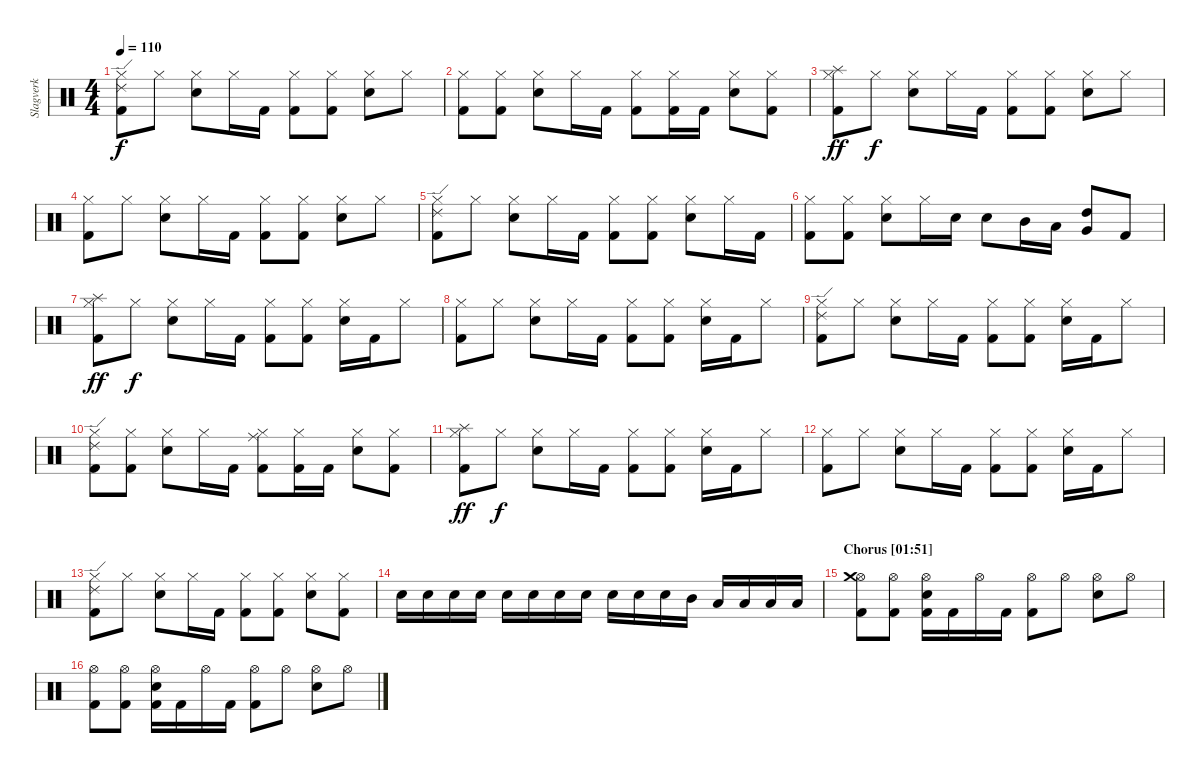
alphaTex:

\track ("Slagverk" "Slagverk") {instrument percussion}
\staff {score}
\articulation defaults
\ts (4 4)
\tempo 110
\clef neutral
\ks c
("Hi-Hat (closed)" "Ride (edge) 2" "Kick (hit) 2").8{dy f} "Hi-Hat (closed)".8 ("Hi-Hat (closed)" "Electric Snare (hit)").8 "Hi-Hat (closed)".16 "Kick (hit) 2".16 ("Hi-Hat (closed)" "Kick (hit) 2").8 ("Hi-Hat (closed)" "Kick (hit) 2").8 ("Hi-Hat (closed)" "Electric Snare (hit)").8 "Hi-Hat (closed)".8 |
("Hi-Hat (closed)" "Kick (hit) 2").8 ("Hi-Hat (closed)" "Kick (hit) 2").8 ("Hi-Hat (closed)" "Electric Snare (hit)").8 "Hi-Hat (closed)".16 "Kick (hit) 2".16 ("Hi-Hat (closed)" "Kick (hit) 2").8 ("Hi-Hat (closed)" "Kick (hit) 2").16 "Kick (hit) 2".16 ("Hi-Hat (closed)" "Electric Snare (hit)").8 ("Hi-Hat (closed)" "Kick (hit) 2").8 |
("Hi-Hat (closed)" "Splash (hit)" "Kick (hit) 2").8{dy ff} "Hi-Hat (closed)".8{dy f} ("Hi-Hat (closed)" "Electric Snare (hit)").8 "Hi-Hat (closed)".16 "Kick (hit) 2".16 ("Hi-Hat (closed)" "Kick (hit) 2").8 ("Hi-Hat (closed)" "Kick (hit) 2").8 ("Hi-Hat (closed)" "Electric Snare (hit)").8 "Hi-Hat (closed)".8 |
("Hi-Hat (closed)" "Kick (hit) 2").8 "Hi-Hat (closed)".8 ("Hi-Hat (closed)" "Electric Snare (hit)").8 "Hi-Hat (closed)".16 "Kick (hit) 2".16 ("Hi-Hat (closed)" "Kick (hit) 2").8 ("Hi-Hat (closed)" "Kick (hit) 2").8 ("Hi-Hat (closed)" "Electric Snare (hit)").8 "Hi-Hat (closed)".8 |
("Hi-Hat (closed)" "Ride (edge) 2" "Kick (hit) 2").8 "Hi-Hat (closed)".8 ("Hi-Hat (closed)" "Electric Snare (hit)").8 "Hi-Hat (closed)".16 "Kick (hit) 2".16 ("Hi-Hat (closed)" "Kick (hit) 2").8 ("Hi-Hat (closed)" "Kick (hit) 2").8 ("Hi-Hat (closed)" "Electric Snare (hit)").8 "Hi-Hat (closed)".16 "Kick (hit) 2".16 |
("Hi-Hat (closed)" "Kick (hit) 2").8 ("Hi-Hat (closed)" "Kick (hit) 2").8 ("Hi-Hat (closed)" "Electric Snare (hit)").8 "Hi-Hat (closed)".16 "Electric Snare (hit)".16 "Electric Snare (hit)".8 "Mid Tom (hit)".16 "Low Tom (hit)".16 ("High Tom (hit)" "Very Low Tom (hit)").8 "Kick (hit) 2".8 |
\section ("" "")
("Hi-Hat (closed)" "Splash (hit)" "Kick (hit) 2").8{dy ff} "Hi-Hat (closed)".8{dy f} ("Hi-Hat (closed)" "Electric Snare (hit)").8 "Hi-Hat (closed)".16 "Kick (hit) 2".16 ("Hi-Hat (closed)" "Kick (hit) 2").8 ("Hi-Hat (closed)" "Kick (hit) 2").8 ("Hi-Hat (closed)" "Electric Snare (hit)").16 "Kick (hit) 2".16 "Hi-Hat (closed)".8 |
("Hi-Hat (closed)" "Kick (hit) 2").8 "Hi-Hat (closed)".8 ("Hi-Hat (closed)" "Electric Snare (hit)").8 "Hi-Hat (closed)".16 "Kick (hit) 2".16 ("Hi-Hat (closed)" "Kick (hit) 2").8 ("Hi-Hat (closed)" "Kick (hit) 2").8 ("Hi-Hat (closed)" "Electric Snare (hit)").16 "Kick (hit) 2".16 "Hi-Hat (closed)".8 |
("Hi-Hat (closed)" "Ride (edge) 2" "Kick (hit) 2").8 "Hi-Hat (closed)".8 ("Hi-Hat (closed)" "Electric Snare (hit)").8 "Hi-Hat (closed)".16 "Kick (hit) 2".16 ("Hi-Hat (closed)" "Kick (hit) 2").8 ("Hi-Hat (closed)" "Kick (hit) 2").8 ("Hi-Hat (closed)" "Electric Snare (hit)").16 "Kick (hit) 2".16 "Hi-Hat (closed)".8 |
("Hi-Hat (closed)" "Ride (edge) 2" "Kick (hit) 2").8 ("Hi-Hat (closed)" "Kick (hit) 2").8 ("Hi-Hat (closed)" "Electric Snare (hit)").8 "Hi-Hat (closed)".16 "Kick (hit) 2".16 ("Hi-Hat (closed)" "Ride (middle)" "Kick (hit) 2").8 ("Hi-Hat (closed)" "Kick (hit) 2").16 "Kick (hit) 2".16 ("Hi-Hat (closed)" "Electric Snare (hit)").8 ("Hi-Hat (closed)" "Kick (hit) 2").8 |
("Hi-Hat (closed)" "Splash (hit)" "Kick (hit) 2").8{dy ff} "Hi-Hat (closed)".8{dy f} ("Hi-Hat (closed)" "Electric Snare (hit)").8 "Hi-Hat (closed)".16 "Kick (hit) 2".16 ("Hi-Hat (closed)" "Kick (hit) 2").8 ("Hi-Hat (closed)" "Kick (hit) 2").8 ("Hi-Hat (closed)" "Electric Snare (hit)").16 "Kick (hit) 2".16 "Hi-Hat (closed)".8 |
("Hi-Hat (closed)" "Kick (hit) 2").8 "Hi-Hat (closed)".8 ("Hi-Hat (closed)" "Electric Snare (hit)").8 "Hi-Hat (closed)".16 "Kick (hit) 2".16 ("Hi-Hat (closed)" "Kick (hit) 2").8 ("Hi-Hat (closed)" "Kick (hit) 2").8 ("Hi-Hat (closed)" "Electric Snare (hit)").16 "Kick (hit) 2".16 "Hi-Hat (closed)".8 |
("Hi-Hat (closed)" "Ride (edge) 2" "Kick (hit) 2").8 "Hi-Hat (closed)".8 ("Hi-Hat (closed)" "Electric Snare (hit)").8 "Hi-Hat (closed)".16 "Kick (hit) 2".16 ("Hi-Hat (closed)" "Kick (hit) 2").8 ("Hi-Hat (closed)" "Kick (hit) 2").8 ("Hi-Hat (closed)" "Electric Snare (hit)").8 ("Hi-Hat (closed)" "Kick (hit) 2").8 |
"Electric Snare (hit)".16 "Electric Snare (hit)".16 "Electric Snare (hit)".16 "Electric Snare (hit)".16 "Electric Snare (hit)".16 "Electric Snare (hit)".16 "Electric Snare (hit)".16 "Electric Snare (hit)".16 "Electric Snare (hit)".16 "Electric Snare (hit)".16 "Electric Snare (hit)".16 "Mid Tom (hit)".16 "Low Tom (hit)".16 "Low Tom (hit)".16 "Low Tom (hit)".16 "Low Tom (hit)".16 |
\section ("" "Chorus [01:51]")
("Hi-Hat (open)" "Crash medium (hit)" "Kick (hit) 2").8 ("Hi-Hat (open)" "Kick (hit) 2").8 ("Hi-Hat (open)" "Electric Snare (hit)" "Kick (hit) 2").16 "Kick (hit) 2".16 "Hi-Hat (open)".16 "Kick (hit) 2".16 ("Hi-Hat (open)" "Kick (hit) 2").8 "Hi-Hat (open)".8 ("Hi-Hat (open)" "Electric Snare (hit)").8 "Hi-Hat (open)".8 |
("Hi-Hat (open)" "Kick (hit) 2").8 ("Hi-Hat (open)" "Kick (hit) 2").8 ("Hi-Hat (open)" "Electric Snare (hit)" "Kick (hit) 2").16 "Kick (hit) 2".16 "Hi-Hat (open)".16 "Kick (hit) 2".16 ("Hi-Hat (open)" "Kick (hit) 2").8 "Hi-Hat (open)".8 ("Hi-Hat (open)" "Electric Snare (hit)").8 "Hi-Hat (open)".8
